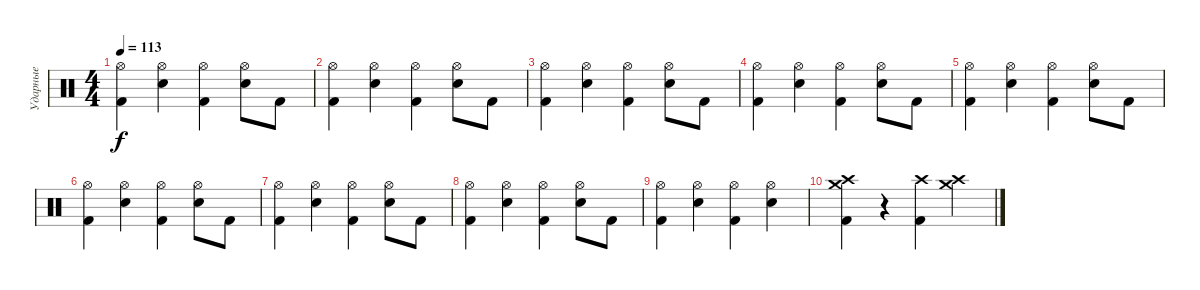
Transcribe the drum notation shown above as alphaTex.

\track ("Ударные" "Ударные") {instrument percussion}
\staff {score}
\articulation defaults
\ts (4 4)
\tempo 113
\clef neutral
\ks c
("Kick (hit) 2" "Hi-Hat (open)").4{dy f} ("Electric Snare (hit)" "Hi-Hat (open)").4 ("Kick (hit) 2" "Hi-Hat (open)").4 ("Electric Snare (hit)" "Hi-Hat (open)").8 "Kick (hit) 2".8 |
("Kick (hit) 2" "Hi-Hat (open)").4 ("Electric Snare (hit)" "Hi-Hat (open)").4 ("Kick (hit) 2" "Hi-Hat (open)").4 ("Electric Snare (hit)" "Hi-Hat (open)").8 "Kick (hit) 2".8 |
("Kick (hit) 2" "Hi-Hat (open)").4 ("Electric Snare (hit)" "Hi-Hat (open)").4 ("Kick (hit) 2" "Hi-Hat (open)").4 ("Electric Snare (hit)" "Hi-Hat (open)").8 "Kick (hit) 2".8 |
("Kick (hit) 2" "Hi-Hat (open)").4 ("Electric Snare (hit)" "Hi-Hat (open)").4 ("Kick (hit) 2" "Hi-Hat (open)").4 ("Electric Snare (hit)" "Hi-Hat (open)").8 "Kick (hit) 2".8 |
("Kick (hit) 2" "Hi-Hat (open)").4 ("Electric Snare (hit)" "Hi-Hat (open)").4 ("Kick (hit) 2" "Hi-Hat (open)").4 ("Electric Snare (hit)" "Hi-Hat (open)").8 "Kick (hit) 2".8 |
("Kick (hit) 2" "Hi-Hat (open)").4 ("Electric Snare (hit)" "Hi-Hat (open)").4 ("Kick (hit) 2" "Hi-Hat (open)").4 ("Electric Snare (hit)" "Hi-Hat (open)").8 "Kick (hit) 2".8 |
("Kick (hit) 2" "Hi-Hat (open)").4 ("Electric Snare (hit)" "Hi-Hat (open)").4 ("Kick (hit) 2" "Hi-Hat (open)").4 ("Electric Snare (hit)" "Hi-Hat (open)").8 "Kick (hit) 2".8 |
("Kick (hit) 2" "Hi-Hat (open)").4 ("Electric Snare (hit)" "Hi-Hat (open)").4 ("Kick (hit) 2" "Hi-Hat (open)").4 ("Electric Snare (hit)" "Hi-Hat (open)").8 "Kick (hit) 2".8 |
("Kick (hit) 2" "Hi-Hat (open)").4 ("Electric Snare (hit)" "Hi-Hat (open)").4 ("Kick (hit) 2" "Hi-Hat (open)").4 ("Electric Snare (hit)" "Hi-Hat (open)").4 |
("Kick (hit) 2" "Crash high (hit)" "Crash medium (hit)").4 r.4 ("Kick (hit) 2" "Crash high (hit)").4 ("Crash high (hit)" "Crash medium (hit)").4
